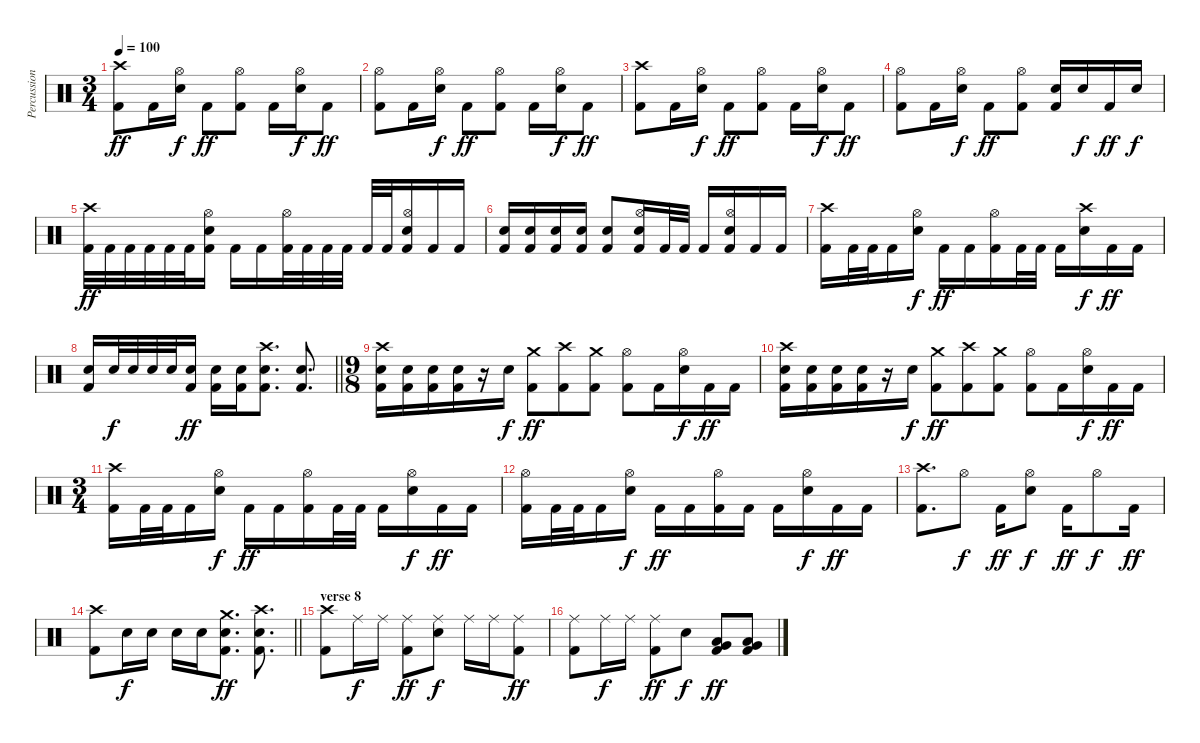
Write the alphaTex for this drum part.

\track ("Percussion" "Percussion") {instrument percussion}
\staff {score}
\articulation defaults
\ts (3 4)
\section ("" "")
\tempo 100
\clef neutral
\ks c
("Crash high (hit)" "Kick (hit) 2").8{dy ff} "Kick (hit) 2".16 ("Hi-Hat (open)" "Snare (hit) 2").16{dy f} "Kick (hit) 2".8{dy ff} ("Hi-Hat (open)" "Kick (hit) 2").8 "Kick (hit) 2".16 ("Hi-Hat (open)" "Snare (hit) 2").16{dy f} "Kick (hit) 2".8{dy ff} |
("Hi-Hat (open)" "Kick (hit) 2").8 "Kick (hit) 2".16 ("Hi-Hat (open)" "Snare (hit) 2").16{dy f} "Kick (hit) 2".8{dy ff} ("Hi-Hat (open)" "Kick (hit) 2").8 "Kick (hit) 2".16 ("Hi-Hat (open)" "Snare (hit) 2").16{dy f} "Kick (hit) 2".8{dy ff} |
("Crash high (hit)" "Kick (hit) 2").8 "Kick (hit) 2".16 ("Hi-Hat (open)" "Snare (hit) 2").16{dy f} "Kick (hit) 2".8{dy ff} ("Hi-Hat (open)" "Kick (hit) 2").8 "Kick (hit) 2".16 ("Hi-Hat (open)" "Snare (hit) 2").16{dy f} "Kick (hit) 2".8{dy ff} |
("Hi-Hat (open)" "Kick (hit) 2").8 "Kick (hit) 2".16 ("Hi-Hat (open)" "Snare (hit) 2").16{dy f} "Kick (hit) 2".8{dy ff} ("Hi-Hat (open)" "Kick (hit) 2").8 ("Snare (hit) 2" "Kick (hit) 2").16 "Snare (hit) 2".16{dy f} "Kick (hit) 2".16{dy ff} "Snare (hit) 2".16{dy f} |
("Crash high (hit)" "Kick (hit) 2").32{dy ff} "Kick (hit) 2".32 "Kick (hit) 2".32 "Kick (hit) 2".32 "Kick (hit) 2".32 "Kick (hit) 2".32 ("Hi-Hat (open)" "Snare (hit) 2" "Kick (hit) 2").16 "Kick (hit) 2".16 "Kick (hit) 2".16 ("Hi-Hat (open)" "Kick (hit) 2").32 "Kick (hit) 2".32 "Kick (hit) 2".32 "Kick (hit) 2".32 "Kick (hit) 2".32 "Kick (hit) 2".32 ("Hi-Hat (open)" "Snare (hit) 2" "Kick (hit) 2").16 "Kick (hit) 2".16 "Kick (hit) 2".16 |
("Snare (hit) 2" "Kick (hit) 2").16 ("Snare (hit) 2" "Kick (hit) 2").16 ("Snare (hit) 2" "Kick (hit) 2").16 ("Snare (hit) 2" "Kick (hit) 2").16 ("Snare (hit) 2" "Kick (hit) 2").8 ("Hi-Hat (open)" "Snare (hit) 2" "Kick (hit) 2").16 "Kick (hit) 2".32 "Kick (hit) 2".32 "Kick (hit) 2".16 ("Hi-Hat (open)" "Snare (hit) 2" "Kick (hit) 2").16 "Kick (hit) 2".16 "Kick (hit) 2".16 |
("Crash high (hit)" "Kick (hit) 2").16 "Kick (hit) 2".32 "Kick (hit) 2".32 "Kick (hit) 2".16 ("Hi-Hat (open)" "Snare (hit) 2").16{dy f} "Kick (hit) 2".16{dy ff} "Kick (hit) 2".16 ("Hi-Hat (open)" "Kick (hit) 2").16 "Kick (hit) 2".32 "Kick (hit) 2".32 "Kick (hit) 2".16 ("Crash high (hit)" "Snare (hit) 2").16{dy f} "Kick (hit) 2".16{dy ff} "Kick (hit) 2".16 |
\barLineRight lightlight
("Snare (hit) 2" "Kick (hit) 2").16 "Snare (hit) 2".32{dy f} "Snare (hit) 2".32 "Snare (hit) 2".32 "Snare (hit) 2".32 ("Snare (hit) 2" "Kick (hit) 2").16{dy ff} ("Snare (hit) 2" "Kick (hit) 2").16 ("Snare (hit) 2" "Kick (hit) 2").16 ("Crash high (hit)" "Snare (hit) 2" "Kick (hit) 2").8{d} ("Snare (hit) 2" "Kick (hit) 2").8{d} |
\ts (9 8)
\section ("" "")
("Crash high (hit)" "Snare (hit) 2" "Kick (hit) 2").16 ("Snare (hit) 2" "Kick (hit) 2").16 ("Snare (hit) 2" "Kick (hit) 2").16 ("Snare (hit) 2" "Kick (hit) 2").16 r.16 "Snare (hit) 2".16{dy f} ("Crash medium (hit)" "Kick (hit) 2").8{dy ff} ("Crash high (hit)" "Kick (hit) 2").8 ("Crash medium (hit)" "Kick (hit) 2").8 ("Hi-Hat (open)" "Kick (hit) 2").8 "Kick (hit) 2".16 ("Hi-Hat (open)" "Snare (hit) 2").16{dy f} "Kick (hit) 2".16{dy ff} "Kick (hit) 2".16 |
("Crash high (hit)" "Snare (hit) 2" "Kick (hit) 2").16 ("Snare (hit) 2" "Kick (hit) 2").16 ("Snare (hit) 2" "Kick (hit) 2").16 ("Snare (hit) 2" "Kick (hit) 2").16 r.16 "Snare (hit) 2".16{dy f} ("Crash medium (hit)" "Kick (hit) 2").8{dy ff} ("Crash high (hit)" "Kick (hit) 2").8 ("Crash medium (hit)" "Kick (hit) 2").8 ("Hi-Hat (open)" "Kick (hit) 2").8 "Kick (hit) 2".16 ("Hi-Hat (open)" "Snare (hit) 2").16{dy f} "Kick (hit) 2".16{dy ff} "Kick (hit) 2".16 |
\ts (3 4)
("Crash high (hit)" "Kick (hit) 2").16 "Kick (hit) 2".32 "Kick (hit) 2".32 "Kick (hit) 2".16 ("Hi-Hat (open)" "Snare (hit) 2").16{dy f} "Kick (hit) 2".16{dy ff} "Kick (hit) 2".16 ("Hi-Hat (open)" "Kick (hit) 2").16 "Kick (hit) 2".32 "Kick (hit) 2".32 "Kick (hit) 2".16 ("Hi-Hat (open)" "Snare (hit) 2").16{dy f} "Kick (hit) 2".16{dy ff} "Kick (hit) 2".16 |
("Hi-Hat (open)" "Kick (hit) 2").16 "Kick (hit) 2".32 "Kick (hit) 2".32 "Kick (hit) 2".16 ("Hi-Hat (open)" "Snare (hit) 2").16{dy f} "Kick (hit) 2".16{dy ff} "Kick (hit) 2".16 ("Hi-Hat (open)" "Kick (hit) 2").16 "Kick (hit) 2".16 "Kick (hit) 2".16 ("Hi-Hat (open)" "Snare (hit) 2").16{dy f} "Kick (hit) 2".16{dy ff} "Kick (hit) 2".16 |
("Crash high (hit)" "Kick (hit) 2").8{d} "Hi-Hat (open)".8{dy f} "Kick (hit) 2".16{dy ff} ("Hi-Hat (open)" "Snare (hit) 2").8{dy f} "Kick (hit) 2".16{dy ff} "Hi-Hat (open)".8{dy f} "Kick (hit) 2".16{dy ff} |
\barLineRight lightlight
("Crash high (hit)" "Kick (hit) 2").8 "Snare (hit) 2".16{dy f} "Snare (hit) 2".16 "Snare (hit) 2".16 "Snare (hit) 2".16 ("Crash medium (hit)" "Snare (hit) 2" "Kick (hit) 2").8{d dy ff} ("Crash high (hit)" "Snare (hit) 2" "Kick (hit) 2").8{d} |
\section ("" "verse 8")
("Crash high (hit)" "Kick (hit) 2").8 "Ride (middle)".16{dy f} "Ride (middle)".16 ("Ride (middle)" "Kick (hit) 2").8{dy ff} ("Ride (middle)" "Snare (hit) 2").8{dy f} "Ride (middle)".16 "Ride (middle)".16 ("Ride (middle)" "Kick (hit) 2").8{dy ff} |
("Ride (middle)" "Kick (hit) 2").8 "Ride (middle)".16{dy f} "Ride (middle)".16 ("Ride (middle)" "Kick (hit) 2").8{dy ff} "Snare (hit) 2".8{dy f} ("Low Tom (hit)" "Very Low Tom (hit)" "Kick (hit) 2").8{dy ff} ("Low Tom (hit)" "Very Low Tom (hit)" "Kick (hit) 2").8
